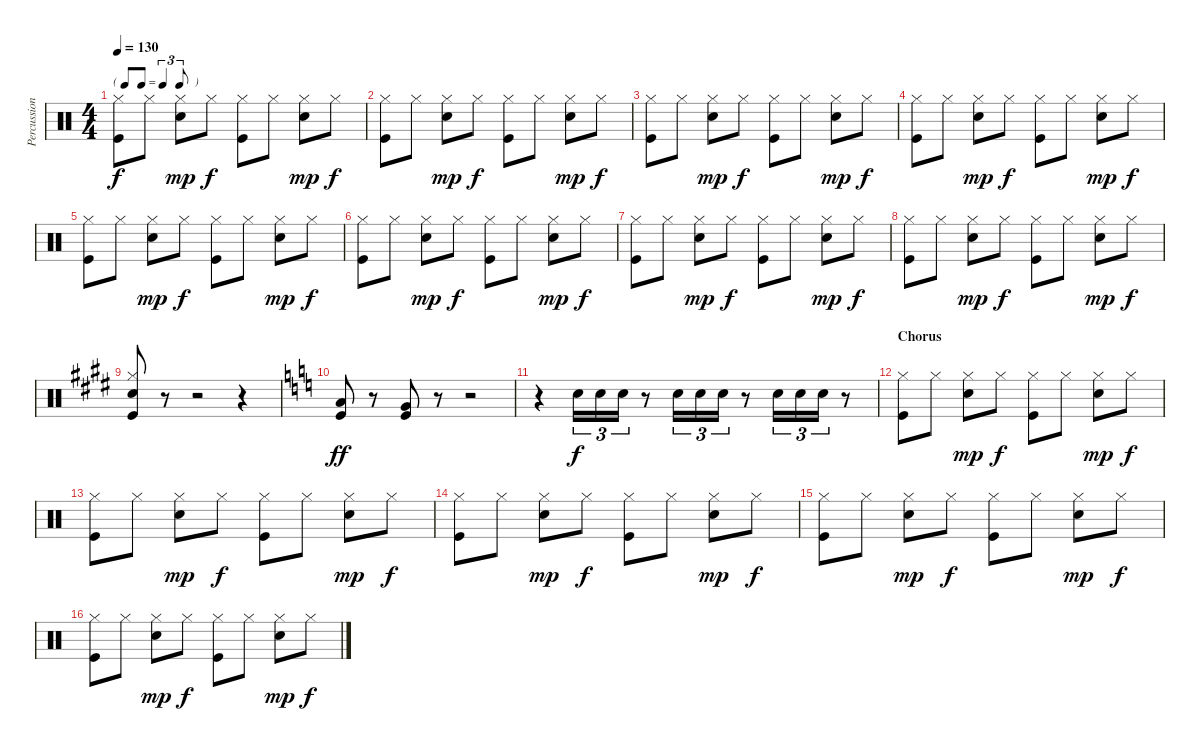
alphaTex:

\track ("Percussion" "Percussion") {instrument percussion}
\staff {score}
\articulation defaults
\ts (4 4)
\tf triplet8th
\tempo 130
\clef neutral
\ks c
("Kick (hit)" "Hi-Hat (closed)").8{dy f} "Hi-Hat (closed)".8 ("Electric Snare (hit)" "Hi-Hat (closed)").8{dy mp} "Hi-Hat (closed)".8{dy f} ("Kick (hit)" "Hi-Hat (closed)").8 "Hi-Hat (closed)".8 ("Electric Snare (hit)" "Hi-Hat (closed)").8{dy mp} "Hi-Hat (closed)".8{dy f} |
("Kick (hit)" "Hi-Hat (closed)").8 "Hi-Hat (closed)".8 ("Electric Snare (hit)" "Hi-Hat (closed)").8{dy mp} "Hi-Hat (closed)".8{dy f} ("Kick (hit)" "Hi-Hat (closed)").8 "Hi-Hat (closed)".8 ("Electric Snare (hit)" "Hi-Hat (closed)").8{dy mp} "Hi-Hat (closed)".8{dy f} |
("Kick (hit)" "Hi-Hat (closed)").8 "Hi-Hat (closed)".8 ("Electric Snare (hit)" "Hi-Hat (closed)").8{dy mp} "Hi-Hat (closed)".8{dy f} ("Kick (hit)" "Hi-Hat (closed)").8 "Hi-Hat (closed)".8 ("Electric Snare (hit)" "Hi-Hat (closed)").8{dy mp} "Hi-Hat (closed)".8{dy f} |
("Kick (hit)" "Hi-Hat (closed)").8 "Hi-Hat (closed)".8 ("Electric Snare (hit)" "Hi-Hat (closed)").8{dy mp} "Hi-Hat (closed)".8{dy f} ("Kick (hit)" "Hi-Hat (closed)").8 "Hi-Hat (closed)".8 ("Electric Snare (hit)" "Hi-Hat (closed)").8{dy mp} "Hi-Hat (closed)".8{dy f} |
("Kick (hit)" "Hi-Hat (closed)").8 "Hi-Hat (closed)".8 ("Electric Snare (hit)" "Hi-Hat (closed)").8{dy mp} "Hi-Hat (closed)".8{dy f} ("Kick (hit)" "Hi-Hat (closed)").8 "Hi-Hat (closed)".8 ("Electric Snare (hit)" "Hi-Hat (closed)").8{dy mp} "Hi-Hat (closed)".8{dy f} |
("Kick (hit)" "Hi-Hat (closed)").8 "Hi-Hat (closed)".8 ("Electric Snare (hit)" "Hi-Hat (closed)").8{dy mp} "Hi-Hat (closed)".8{dy f} ("Kick (hit)" "Hi-Hat (closed)").8 "Hi-Hat (closed)".8 ("Electric Snare (hit)" "Hi-Hat (closed)").8{dy mp} "Hi-Hat (closed)".8{dy f} |
("Kick (hit)" "Hi-Hat (closed)").8 "Hi-Hat (closed)".8 ("Electric Snare (hit)" "Hi-Hat (closed)").8{dy mp} "Hi-Hat (closed)".8{dy f} ("Kick (hit)" "Hi-Hat (closed)").8 "Hi-Hat (closed)".8 ("Electric Snare (hit)" "Hi-Hat (closed)").8{dy mp} "Hi-Hat (closed)".8{dy f} |
("Kick (hit)" "Hi-Hat (closed)").8 "Hi-Hat (closed)".8 ("Electric Snare (hit)" "Hi-Hat (closed)").8{dy mp} "Hi-Hat (closed)".8{dy f} ("Kick (hit)" "Hi-Hat (closed)").8 "Hi-Hat (closed)".8 ("Electric Snare (hit)" "Hi-Hat (closed)").8{dy mp} "Hi-Hat (closed)".8{dy f} |
\ks e
("Kick (hit)" "Electric Snare (hit)" "Hi-Hat (closed)").8 r.8 r.2 r.4 |
\ks c
("Kick (hit)" "Low Tom (hit)").8{dy ff} r.8 ("Kick (hit)" "Very Low Tom (hit)").8 r.8 r.2 |
r.4 "Snare (hit) 2".16{tu (3 2) dy f} "Snare (hit) 2".16{tu (3 2)} "Snare (hit) 2".16{tu (3 2)} r.8 "Snare (hit) 2".16{tu (3 2)} "Snare (hit) 2".16{tu (3 2)} "Snare (hit) 2".16{tu (3 2)} r.8 "Snare (hit) 2".16{tu (3 2)} "Snare (hit) 2".16{tu (3 2)} "Snare (hit) 2".16{tu (3 2)} r.8 |
\section ("" "Chorus")
("Kick (hit)" "Hi-Hat (closed)").8 "Hi-Hat (closed)".8 ("Electric Snare (hit)" "Hi-Hat (closed)").8{dy mp} "Hi-Hat (closed)".8{dy f} ("Kick (hit)" "Hi-Hat (closed)").8 "Hi-Hat (closed)".8 ("Electric Snare (hit)" "Hi-Hat (closed)").8{dy mp} "Hi-Hat (closed)".8{dy f} |
("Kick (hit)" "Hi-Hat (closed)").8 "Hi-Hat (closed)".8 ("Electric Snare (hit)" "Hi-Hat (closed)").8{dy mp} "Hi-Hat (closed)".8{dy f} ("Kick (hit)" "Hi-Hat (closed)").8 "Hi-Hat (closed)".8 ("Electric Snare (hit)" "Hi-Hat (closed)").8{dy mp} "Hi-Hat (closed)".8{dy f} |
("Kick (hit)" "Hi-Hat (closed)").8 "Hi-Hat (closed)".8 ("Electric Snare (hit)" "Hi-Hat (closed)").8{dy mp} "Hi-Hat (closed)".8{dy f} ("Kick (hit)" "Hi-Hat (closed)").8 "Hi-Hat (closed)".8 ("Electric Snare (hit)" "Hi-Hat (closed)").8{dy mp} "Hi-Hat (closed)".8{dy f} |
("Kick (hit)" "Hi-Hat (closed)").8 "Hi-Hat (closed)".8 ("Electric Snare (hit)" "Hi-Hat (closed)").8{dy mp} "Hi-Hat (closed)".8{dy f} ("Kick (hit)" "Hi-Hat (closed)").8 "Hi-Hat (closed)".8 ("Electric Snare (hit)" "Hi-Hat (closed)").8{dy mp} "Hi-Hat (closed)".8{dy f} |
("Kick (hit)" "Hi-Hat (closed)").8 "Hi-Hat (closed)".8 ("Electric Snare (hit)" "Hi-Hat (closed)").8{dy mp} "Hi-Hat (closed)".8{dy f} ("Kick (hit)" "Hi-Hat (closed)").8 "Hi-Hat (closed)".8 ("Electric Snare (hit)" "Hi-Hat (closed)").8{dy mp} "Hi-Hat (closed)".8{dy f}
